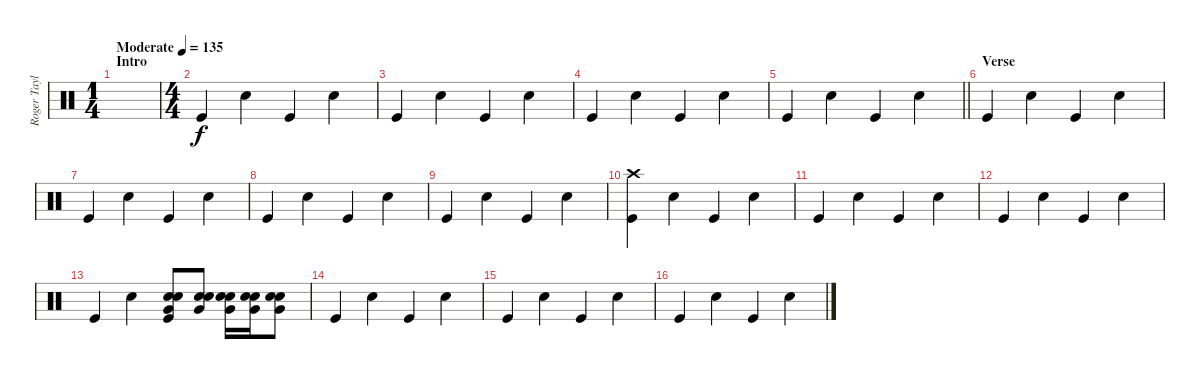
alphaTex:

\track ("Roger Taylor" "Roger Tayl") {instrument percussion}
\staff {score}
\articulation defaults
\ts (1 4)
\section ("" "Intro")
\tempo (135 "Moderate")
\clef neutral
\ks c
|
\ts (4 4)
"Kick (hit)".4 "Snare (hit) 2".4 "Kick (hit)".4 "Snare (hit) 2".4 |
"Kick (hit)".4 "Snare (hit) 2".4 "Kick (hit)".4 "Snare (hit) 2".4 |
"Kick (hit)".4 "Snare (hit) 2".4 "Kick (hit)".4 "Snare (hit) 2".4 |
\barLineRight lightlight "Kick (hit)".4 "Snare (hit) 2".4 "Kick (hit)".4 "Snare (hit) 2".4
|
\section ("" "Verse")
"Kick (hit)".4 "Snare (hit) 2".4 "Kick (hit)".4 "Snare (hit) 2".4 |
"Kick (hit)".4 "Snare (hit) 2".4 "Kick (hit)".4 "Snare (hit) 2".4 |
"Kick (hit)".4 "Snare (hit) 2".4 "Kick (hit)".4 "Snare (hit) 2".4 |
"Kick (hit)".4 "Snare (hit) 2".4 "Kick (hit)".4 "Snare (hit) 2".4 |
("Crash high (hit)" "Kick (hit)").4 "Snare (hit) 2".4 "Kick (hit)".4 "Snare (hit) 2".4 |
"Kick (hit)".4 "Snare (hit) 2".4 "Kick (hit)".4 "Snare (hit) 2".4 |
"Kick (hit)".4 "Snare (hit) 2".4 "Kick (hit)".4 "Snare (hit) 2".4 |
"Kick (hit)".4 "Snare (hit) 2".4 ("Very Low Tom (hit)" "Snare (hit) 2" "Electric Snare (hit)" "Kick (hit)").8 ("Very Low Tom (hit)" "Snare (hit) 2" "Electric Snare (hit)").8 ("Very Low Tom (hit)" "Snare (hit) 2" "Electric Snare (hit)").16 ("Very Low Tom (hit)" "Snare (hit) 2" "Electric Snare (hit)").16 ("Very Low Tom (hit)" "Snare (hit) 2" "Electric Snare (hit)").8 |
"Kick (hit)".4 "Snare (hit) 2".4 "Kick (hit)".4 "Snare (hit) 2".4 |
"Kick (hit)".4 "Snare (hit) 2".4 "Kick (hit)".4 "Snare (hit) 2".4 |
"Kick (hit)".4 "Snare (hit) 2".4 "Kick (hit)".4 "Snare (hit) 2".4
